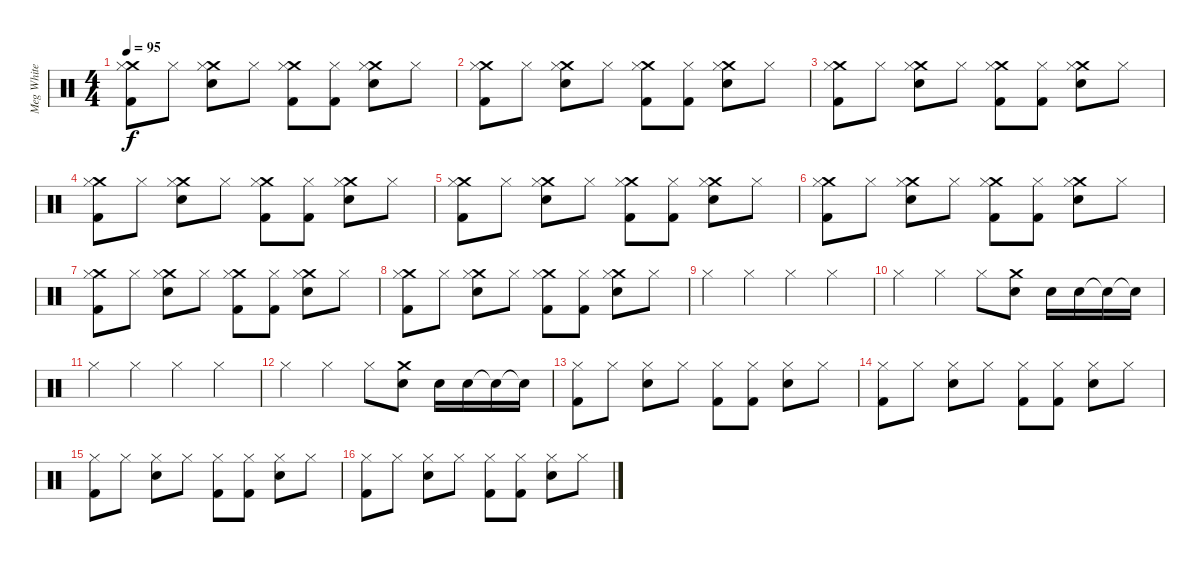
\track ("Meg White - Drums" "Meg White ") {instrument percussion}
\staff {score}
\articulation defaults
\ts (4 4)
\tempo 95
\clef neutral
\ks c
("Crash medium (hit)" "Hi-Hat (closed)" "Kick (hit) 2").8{dy f} "Hi-Hat (closed)".8 ("Crash medium (hit)" "Snare (hit) 2" "Hi-Hat (closed)").8 "Hi-Hat (closed)".8 ("Crash medium (hit)" "Hi-Hat (closed)" "Kick (hit) 2").8 ("Hi-Hat (closed)" "Kick (hit) 2").8 ("Crash medium (hit)" "Snare (hit) 2" "Hi-Hat (closed)").8 "Hi-Hat (closed)".8 |
("Crash medium (hit)" "Hi-Hat (closed)" "Kick (hit) 2").8 "Hi-Hat (closed)".8 ("Crash medium (hit)" "Snare (hit) 2" "Hi-Hat (closed)").8 "Hi-Hat (closed)".8 ("Crash medium (hit)" "Hi-Hat (closed)" "Kick (hit) 2").8 ("Hi-Hat (closed)" "Kick (hit) 2").8 ("Crash medium (hit)" "Snare (hit) 2" "Hi-Hat (closed)").8 "Hi-Hat (closed)".8 |
("Crash medium (hit)" "Hi-Hat (closed)" "Kick (hit) 2").8 "Hi-Hat (closed)".8 ("Crash medium (hit)" "Snare (hit) 2" "Hi-Hat (closed)").8 "Hi-Hat (closed)".8 ("Crash medium (hit)" "Hi-Hat (closed)" "Kick (hit) 2").8 ("Hi-Hat (closed)" "Kick (hit) 2").8 ("Crash medium (hit)" "Snare (hit) 2" "Hi-Hat (closed)").8 "Hi-Hat (closed)".8 |
("Crash medium (hit)" "Hi-Hat (closed)" "Kick (hit) 2").8 "Hi-Hat (closed)".8 ("Crash medium (hit)" "Snare (hit) 2" "Hi-Hat (closed)").8 "Hi-Hat (closed)".8 ("Crash medium (hit)" "Hi-Hat (closed)" "Kick (hit) 2").8 ("Hi-Hat (closed)" "Kick (hit) 2").8 ("Crash medium (hit)" "Snare (hit) 2" "Hi-Hat (closed)").8 "Hi-Hat (closed)".8 |
("Crash medium (hit)" "Hi-Hat (closed)" "Kick (hit) 2").8 "Hi-Hat (closed)".8 ("Crash medium (hit)" "Snare (hit) 2" "Hi-Hat (closed)").8 "Hi-Hat (closed)".8 ("Crash medium (hit)" "Hi-Hat (closed)" "Kick (hit) 2").8 ("Hi-Hat (closed)" "Kick (hit) 2").8 ("Crash medium (hit)" "Snare (hit) 2" "Hi-Hat (closed)").8 "Hi-Hat (closed)".8 |
("Crash medium (hit)" "Hi-Hat (closed)" "Kick (hit) 2").8 "Hi-Hat (closed)".8 ("Crash medium (hit)" "Snare (hit) 2" "Hi-Hat (closed)").8 "Hi-Hat (closed)".8 ("Crash medium (hit)" "Hi-Hat (closed)" "Kick (hit) 2").8 ("Hi-Hat (closed)" "Kick (hit) 2").8 ("Crash medium (hit)" "Snare (hit) 2" "Hi-Hat (closed)").8 "Hi-Hat (closed)".8 |
("Crash medium (hit)" "Hi-Hat (closed)" "Kick (hit) 2").8 "Hi-Hat (closed)".8 ("Crash medium (hit)" "Snare (hit) 2" "Hi-Hat (closed)").8 "Hi-Hat (closed)".8 ("Crash medium (hit)" "Hi-Hat (closed)" "Kick (hit) 2").8 ("Hi-Hat (closed)" "Kick (hit) 2").8 ("Crash medium (hit)" "Snare (hit) 2" "Hi-Hat (closed)").8 "Hi-Hat (closed)".8 |
("Crash medium (hit)" "Hi-Hat (closed)" "Kick (hit) 2").8 "Hi-Hat (closed)".8 ("Crash medium (hit)" "Snare (hit) 2" "Hi-Hat (closed)").8 "Hi-Hat (closed)".8 ("Crash medium (hit)" "Hi-Hat (closed)" "Kick (hit) 2").8 ("Hi-Hat (closed)" "Kick (hit) 2").8 ("Crash medium (hit)" "Snare (hit) 2" "Hi-Hat (closed)").8 "Hi-Hat (closed)".8 |
"Hi-Hat (closed)".4 "Hi-Hat (closed)".4 "Hi-Hat (closed)".4 "Hi-Hat (closed)".4 |
"Hi-Hat (closed)".4 "Hi-Hat (closed)".4 "Hi-Hat (closed)".8 ("Crash medium (hit)" "Snare (hit) 2").8 "Snare (hit) 2".16 "Snare (hit) 2".16 "Snare (hit)"{t}.16 "Snare (hit)"{t}.16 |
"Hi-Hat (closed)".4 "Hi-Hat (closed)".4 "Hi-Hat (closed)".4 "Hi-Hat (closed)".4 |
"Hi-Hat (closed)".4 "Hi-Hat (closed)".4 "Hi-Hat (closed)".8 ("Crash medium (hit)" "Snare (hit) 2").8 "Snare (hit) 2".16 "Snare (hit) 2".16 "Snare (hit)"{t}.16 "Snare (hit)"{t}.16 |
("Hi-Hat (closed)" "Kick (hit) 2").8 "Hi-Hat (closed)".8 ("Snare (hit) 2" "Hi-Hat (closed)").8 "Hi-Hat (closed)".8 ("Hi-Hat (closed)" "Kick (hit) 2").8 ("Hi-Hat (closed)" "Kick (hit) 2").8 ("Snare (hit) 2" "Hi-Hat (closed)").8 "Hi-Hat (closed)".8 |
("Hi-Hat (closed)" "Kick (hit) 2").8 "Hi-Hat (closed)".8 ("Snare (hit) 2" "Hi-Hat (closed)").8 "Hi-Hat (closed)".8 ("Hi-Hat (closed)" "Kick (hit) 2").8 ("Hi-Hat (closed)" "Kick (hit) 2").8 ("Snare (hit) 2" "Hi-Hat (closed)").8 "Hi-Hat (closed)".8 |
("Hi-Hat (closed)" "Kick (hit) 2").8 "Hi-Hat (closed)".8 ("Snare (hit) 2" "Hi-Hat (closed)").8 "Hi-Hat (closed)".8 ("Hi-Hat (closed)" "Kick (hit) 2").8 ("Hi-Hat (closed)" "Kick (hit) 2").8 ("Snare (hit) 2" "Hi-Hat (closed)").8 "Hi-Hat (closed)".8 |
("Hi-Hat (closed)" "Kick (hit) 2").8 "Hi-Hat (closed)".8 ("Snare (hit) 2" "Hi-Hat (closed)").8 "Hi-Hat (closed)".8 ("Hi-Hat (closed)" "Kick (hit) 2").8 ("Hi-Hat (closed)" "Kick (hit) 2").8 ("Snare (hit) 2" "Hi-Hat (closed)").8 "Hi-Hat (closed)".8
